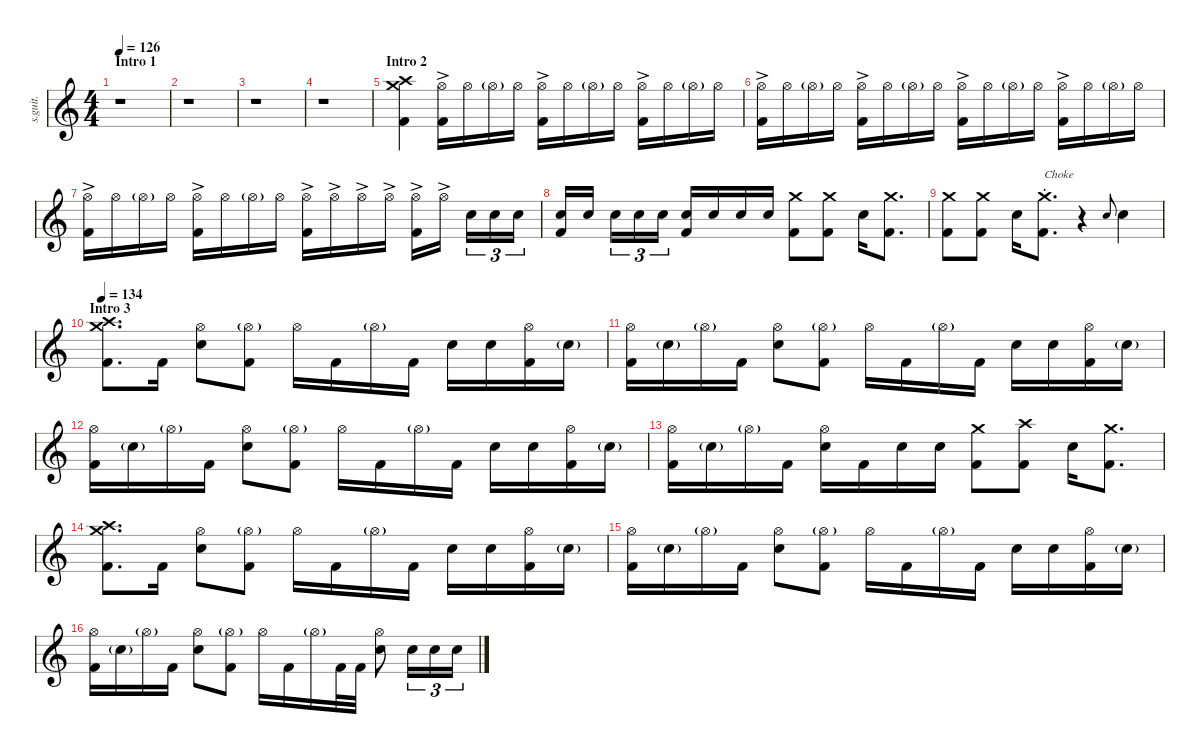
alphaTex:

\defaultSystemsLayout 4
\hideDynamics
\bracketExtendMode nobrackets
\track ("Joey Jordison RIP" "s.guit.") {instrument percussion}
\staff {score}
\articulation defaults
\ts (4 4)
\beaming (8 2 2 2 2)
\section ("" "Intro 1")
\tempo 126
\clef g2
\ks c
r.1{dy fff} |
r.1 |
r.1 |
r.1 |
\section ("" "Intro 2")
("Crash high (hit)" "Crash medium (hit)" "Kick (hit) 2").4 ("Hi-Hat (open)"{ac} "Kick (hit) 2").16 "Hi-Hat (open)".16 "Hi-Hat (open)"{g}.16 "Hi-Hat (open)".16 ("Hi-Hat (open)"{ac} "Kick (hit) 2").16 "Hi-Hat (open)".16 "Hi-Hat (open)"{g}.16 "Hi-Hat (open)".16 ("Hi-Hat (open)"{ac} "Kick (hit) 2").16 "Hi-Hat (open)".16 "Hi-Hat (open)"{g}.16 "Hi-Hat (open)".16 |
("Hi-Hat (open)"{ac} "Kick (hit) 2").16 "Hi-Hat (open)".16 "Hi-Hat (open)"{g}.16 "Hi-Hat (open)".16 ("Hi-Hat (open)"{ac} "Kick (hit) 2").16 "Hi-Hat (open)".16 "Hi-Hat (open)"{g}.16 "Hi-Hat (open)".16 ("Hi-Hat (open)"{ac} "Kick (hit) 2").16 "Hi-Hat (open)".16 "Hi-Hat (open)"{g}.16 "Hi-Hat (open)".16 ("Hi-Hat (open)"{ac} "Kick (hit) 2").16 "Hi-Hat (open)".16 "Hi-Hat (open)"{g}.16 "Hi-Hat (open)".16 |
("Hi-Hat (open)"{ac} "Kick (hit) 2").16 "Hi-Hat (open)".16 "Hi-Hat (open)"{g}.16 "Hi-Hat (open)".16 ("Hi-Hat (open)"{ac} "Kick (hit) 2").16 "Hi-Hat (open)".16 "Hi-Hat (open)"{g}.16 "Hi-Hat (open)".16 ("Hi-Hat (open)"{ac} "Kick (hit) 2").16 "Hi-Hat (open)"{ac}.16 "Hi-Hat (open)"{ac}.16 "Hi-Hat (open)"{ac}.16 ("Hi-Hat (open)"{ac} "Kick (hit) 2").16 "Hi-Hat (open)"{ac}.16 "Snare (hit) 2".16{tu (3 2)} "Snare (hit) 2".16{tu (3 2)} "Snare (hit) 2".16{tu (3 2)} |
("Snare (hit) 2" "Kick (hit) 2").16 "Snare (hit) 2".16 "Snare (hit) 2".16{tu (3 2)} "Snare (hit) 2".16{tu (3 2)} "Snare (hit) 2".16{tu (3 2)} ("Snare (hit) 2" "Kick (hit) 2").16 "Snare (hit) 2".16 "Snare (hit) 2".16 "Snare (hit) 2".16 ("Crash medium (hit)" "Kick (hit) 2").8 ("Crash medium (hit)" "Kick (hit) 2").8 "Snare (hit) 2".16 ("Crash medium (hit)" "Kick (hit) 2").8{d} |
("Crash medium (hit)" "Kick (hit) 2").8 ("Crash medium (hit)" "Kick (hit) 2").8 "Snare (hit) 2".16 ("Kick (hit) 2" "Crash medium (choke)").8{d txt "Choke"} r.4 "Snare (hit) 2".8{gr onbeat} "Snare (hit) 2".4 |
\section ("" "Intro 3")
\tempo 134
("Crash high (hit)" "Crash medium (hit)" "Kick (hit) 2").8{d} "Kick (hit) 2".16 ("Hi-Hat (open)" "Snare (hit) 2").8 ("Hi-Hat (open)"{g} "Kick (hit) 2").8 "Hi-Hat (open)".16 "Kick (hit) 2".16 "Hi-Hat (open)"{g}.16 "Kick (hit) 2".16 "Snare (hit) 2".16 "Snare (hit) 2".16 ("Hi-Hat (open)" "Kick (hit) 2").16 "Snare (hit) 2"{g}.16 |
("Hi-Hat (open)" "Kick (hit) 2").16 "Snare (hit) 2"{g}.16 "Hi-Hat (open)"{g}.16 "Kick (hit) 2".16 ("Hi-Hat (open)" "Snare (hit) 2").8 ("Hi-Hat (open)"{g} "Kick (hit) 2").8 "Hi-Hat (open)".16 "Kick (hit) 2".16 "Hi-Hat (open)"{g}.16 "Kick (hit) 2".16 "Snare (hit) 2".16 "Snare (hit) 2".16 ("Hi-Hat (open)" "Kick (hit) 2").16 "Snare (hit) 2"{g}.16 |
("Hi-Hat (open)" "Kick (hit) 2").16 "Snare (hit) 2"{g}.16 "Hi-Hat (open)"{g}.16 "Kick (hit) 2".16 ("Hi-Hat (open)" "Snare (hit) 2").8 ("Hi-Hat (open)"{g} "Kick (hit) 2").8 "Hi-Hat (open)".16 "Kick (hit) 2".16 "Hi-Hat (open)"{g}.16 "Kick (hit) 2".16 "Snare (hit) 2".16 "Snare (hit) 2".16 ("Hi-Hat (open)" "Kick (hit) 2").16 "Snare (hit) 2"{g}.16 |
("Hi-Hat (open)" "Kick (hit) 2").16 "Snare (hit) 2"{g}.16 "Hi-Hat (open)"{g}.16 "Kick (hit) 2".16 ("Hi-Hat (open)" "Snare (hit) 2").16 "Kick (hit) 2".16 "Snare (hit) 2".16 "Snare (hit) 2".16 ("Crash medium (hit)" "Kick (hit) 2").8 ("Crash high (hit)" "Kick (hit) 2").8 "Snare (hit) 2".16 ("Crash medium (hit)" "Kick (hit) 2").8{d} |
("Crash high (hit)" "Crash medium (hit)" "Kick (hit) 2").8{d} "Kick (hit) 2".16 ("Hi-Hat (open)" "Snare (hit) 2").8 ("Hi-Hat (open)"{g} "Kick (hit) 2").8 "Hi-Hat (open)".16 "Kick (hit) 2".16 "Hi-Hat (open)"{g}.16 "Kick (hit) 2".16 "Snare (hit) 2".16 "Snare (hit) 2".16 ("Hi-Hat (open)" "Kick (hit) 2").16 "Snare (hit) 2"{g}.16 |
("Hi-Hat (open)" "Kick (hit) 2").16 "Snare (hit) 2"{g}.16 "Hi-Hat (open)"{g}.16 "Kick (hit) 2".16 ("Hi-Hat (open)" "Snare (hit) 2").8 ("Hi-Hat (open)"{g} "Kick (hit) 2").8 "Hi-Hat (open)".16 "Kick (hit) 2".16 "Hi-Hat (open)"{g}.16 "Kick (hit) 2".16 "Snare (hit) 2".16 "Snare (hit) 2".16 ("Hi-Hat (open)" "Kick (hit) 2").16 "Snare (hit) 2"{g}.16 |
("Hi-Hat (open)" "Kick (hit) 2").16 "Snare (hit) 2"{g}.16 "Hi-Hat (open)"{g}.16 "Kick (hit) 2".16 ("Hi-Hat (open)" "Snare (hit) 2").8 ("Hi-Hat (open)"{g} "Kick (hit) 2").8 "Hi-Hat (open)".16 "Kick (hit) 2".16 "Hi-Hat (open)"{g}.16 "Kick (hit) 2".32 "Kick (hit) 2".32 ("Hi-Hat (open)" "Snare (hit) 2").8 "Snare (hit) 2".16{tu (3 2)} "Snare (hit) 2".16{tu (3 2)} "Snare (hit) 2".16{tu (3 2)}
